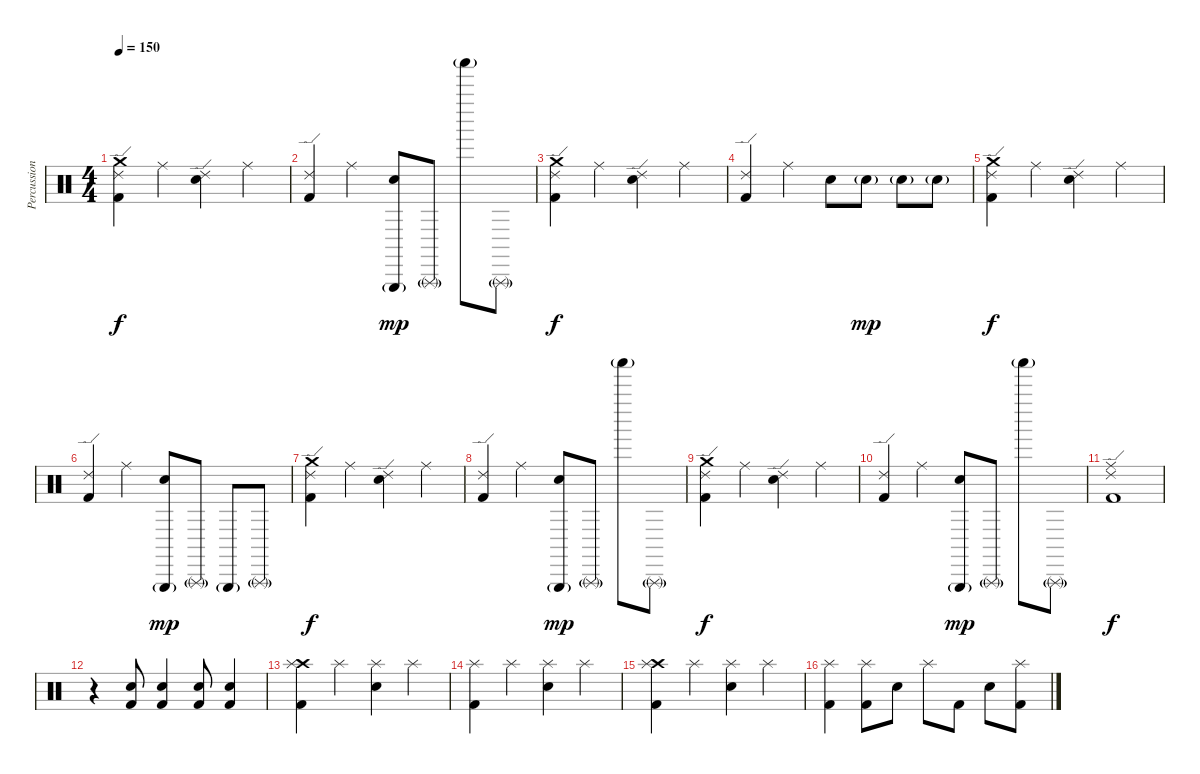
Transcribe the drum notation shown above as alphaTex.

\track ("Percussion" "Percussion") {instrument percussion}
\staff {score}
\articulation defaults
\ts (4 4)
\tempo 150
\clef neutral
\ks c
("Crash medium (hit)" "Ride (edge) 2" "Kick (hit) 2").4{dy f} "Ride (middle)".4 ("Ride (edge) 2" "Snare (hit) 2").4 "Ride (middle)".4 |
("Ride (edge) 2" "Kick (hit) 2").4 "Ride (middle)".4 ("Triangle (hit)"{g} "Snare (hit) 2").8{dy mp} "Triangle (rnute)"{g}.8 "Shaker (hit)"{g}.8 "Triangle (rnute)"{g}.8 |
("Crash medium (hit)" "Ride (edge) 2" "Kick (hit) 2").4{dy f} "Ride (middle)".4 ("Ride (edge) 2" "Snare (hit) 2").4 "Ride (middle)".4 |
("Ride (edge) 2" "Kick (hit) 2").4 "Ride (middle)".4 "Snare (hit) 2".8 "Snare (hit) 2"{g}.8{dy mp} "Snare (hit) 2"{g}.8 "Snare (hit) 2"{g}.8 |
("Crash medium (hit)" "Ride (edge) 2" "Kick (hit) 2").4{dy f} "Ride (middle)".4 ("Ride (edge) 2" "Snare (hit) 2").4 "Ride (middle)".4 |
("Ride (edge) 2" "Kick (hit) 2").4 "Ride (middle)".4 ("Triangle (hit)"{g} "Snare (hit) 2").8{dy mp} "Triangle (rnute)"{g}.8 "Triangle (hit)"{g}.8 "Triangle (rnute)"{g}.8 |
("Crash medium (hit)" "Ride (edge) 2" "Kick (hit) 2").4{dy f} "Ride (middle)".4 ("Ride (edge) 2" "Snare (hit) 2").4 "Ride (middle)".4 |
("Ride (edge) 2" "Kick (hit) 2").4 "Ride (middle)".4 ("Triangle (hit)"{g} "Snare (hit) 2").8{dy mp} "Triangle (rnute)"{g}.8 "Shaker (hit)"{g}.8 "Triangle (rnute)"{g}.8 |
("Crash medium (hit)" "Ride (edge) 2" "Kick (hit) 2").4{dy f} "Ride (middle)".4 ("Ride (edge) 2" "Snare (hit) 2").4 "Ride (middle)".4 |
("Ride (edge) 2" "Kick (hit) 2").4 "Ride (middle)".4 ("Triangle (hit)"{g} "Snare (hit) 2").8{dy mp} "Triangle (rnute)"{g}.8 "Shaker (hit)"{g}.8 "Triangle (rnute)"{g}.8 |
("Ride (edge) 2" "Ride (middle)" "Kick (hit) 2").1{dy f} |
r.4 ("Electric Snare (hit)" "Kick (hit) 2").8 ("Electric Snare (hit)" "Kick (hit) 2").4 ("Electric Snare (hit)" "Kick (hit) 2").8 ("Electric Snare (hit)" "Kick (hit) 2").4 |
("Crash high (hit)" "Splash (hit)" "Kick (hit) 2").4 "Splash (hit)".4 ("Splash (hit)" "Snare (hit) 2").4 "Splash (hit)".4 |
("Splash (hit)" "Kick (hit) 2").4 "Splash (hit)".4 ("Splash (hit)" "Snare (hit) 2").4 "Splash (hit)".4 |
("Crash high (hit)" "Splash (hit)" "Kick (hit) 2").4 "Splash (hit)".4 ("Splash (hit)" "Snare (hit) 2").4 "Splash (hit)".4 |
("Splash (hit)" "Kick (hit) 2").4 ("Splash (hit)" "Kick (hit) 2").8 "Snare (hit) 2".8 "Splash (hit)".8 "Kick (hit) 2".8 "Snare (hit) 2".8 ("Splash (hit)" "Kick (hit) 2").8
